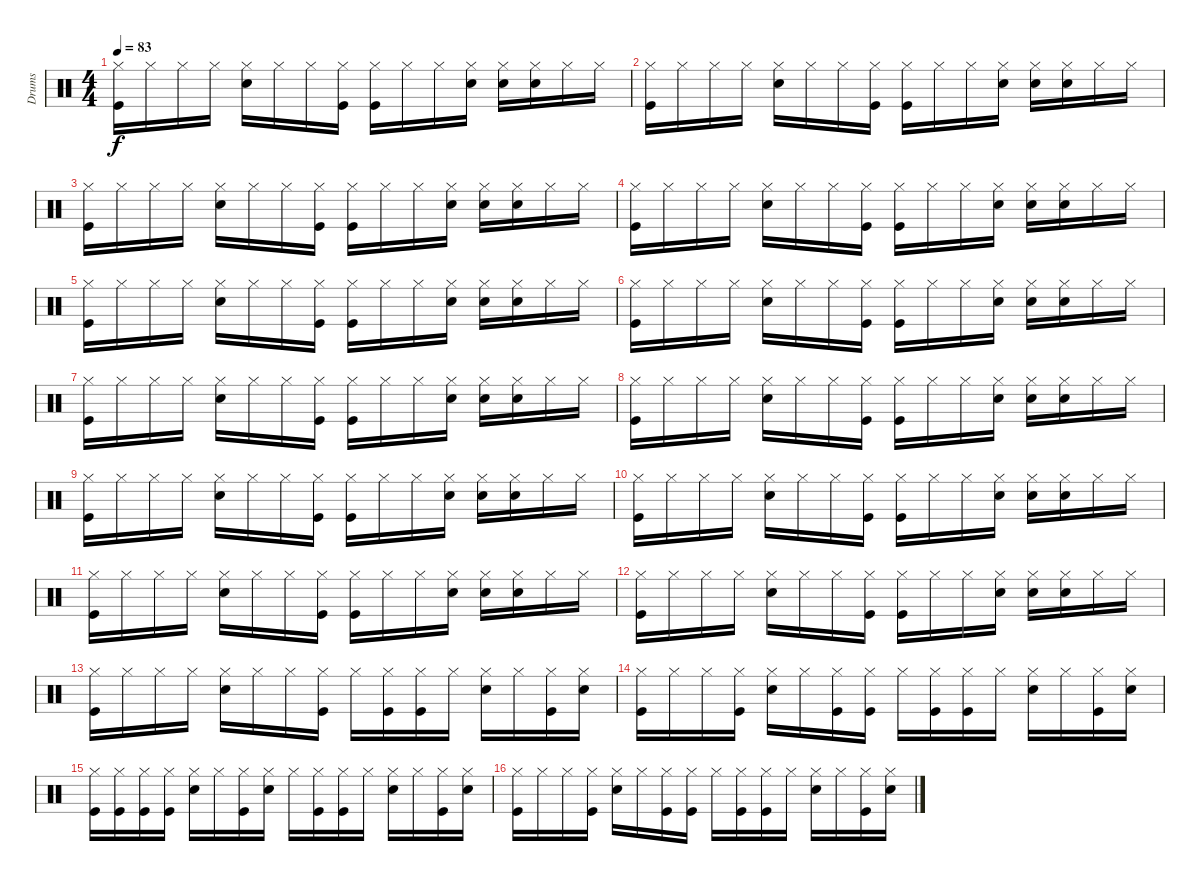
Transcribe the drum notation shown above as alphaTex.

\track ("Drums" "Drums") {instrument percussion}
\staff {score}
\articulation defaults
\ts (4 4)
\tempo 83
\clef neutral
\ks c
("Hi-Hat (closed)" "Kick (hit)").16{dy f} "Hi-Hat (closed)".16 "Hi-Hat (closed)".16 "Hi-Hat (closed)".16 ("Hi-Hat (closed)" "Snare (hit) 2").16 "Hi-Hat (closed)".16 "Hi-Hat (closed)".16 ("Hi-Hat (closed)" "Kick (hit)").16 ("Hi-Hat (closed)" "Kick (hit)").16 "Hi-Hat (closed)".16 "Hi-Hat (closed)".16 ("Hand Clap (hit)" "Hi-Hat (closed)").16 ("Hi-Hat (closed)" "Snare (hit) 2").16 ("Hand Clap (hit)" "Hi-Hat (closed)").16 "Hi-Hat (closed)".16 "Hi-Hat (closed)".16 |
("Hi-Hat (closed)" "Kick (hit)").16 "Hi-Hat (closed)".16 "Hi-Hat (closed)".16 "Hi-Hat (closed)".16 ("Hi-Hat (closed)" "Snare (hit) 2").16 "Hi-Hat (closed)".16 "Hi-Hat (closed)".16 ("Hi-Hat (closed)" "Kick (hit)").16 ("Hi-Hat (closed)" "Kick (hit)").16 "Hi-Hat (closed)".16 "Hi-Hat (closed)".16 ("Hand Clap (hit)" "Hi-Hat (closed)").16 ("Hi-Hat (closed)" "Snare (hit) 2").16 ("Hand Clap (hit)" "Hi-Hat (closed)").16 "Hi-Hat (closed)".16 "Hi-Hat (closed)".16 |
("Hi-Hat (closed)" "Kick (hit)").16 "Hi-Hat (closed)".16 "Hi-Hat (closed)".16 "Hi-Hat (closed)".16 ("Hi-Hat (closed)" "Snare (hit) 2").16 "Hi-Hat (closed)".16 "Hi-Hat (closed)".16 ("Hi-Hat (closed)" "Kick (hit)").16 ("Hi-Hat (closed)" "Kick (hit)").16 "Hi-Hat (closed)".16 "Hi-Hat (closed)".16 ("Hand Clap (hit)" "Hi-Hat (closed)").16 ("Hi-Hat (closed)" "Snare (hit) 2").16 ("Hand Clap (hit)" "Hi-Hat (closed)").16 "Hi-Hat (closed)".16 "Hi-Hat (closed)".16 |
("Hi-Hat (closed)" "Kick (hit)").16 "Hi-Hat (closed)".16 "Hi-Hat (closed)".16 "Hi-Hat (closed)".16 ("Hi-Hat (closed)" "Snare (hit) 2").16 "Hi-Hat (closed)".16 "Hi-Hat (closed)".16 ("Hi-Hat (closed)" "Kick (hit)").16 ("Hi-Hat (closed)" "Kick (hit)").16 "Hi-Hat (closed)".16 "Hi-Hat (closed)".16 ("Hand Clap (hit)" "Hi-Hat (closed)").16 ("Hi-Hat (closed)" "Snare (hit) 2").16 ("Hand Clap (hit)" "Hi-Hat (closed)").16 "Hi-Hat (closed)".16 "Hi-Hat (closed)".16 |
("Hi-Hat (closed)" "Kick (hit)").16 "Hi-Hat (closed)".16 "Hi-Hat (closed)".16 "Hi-Hat (closed)".16 ("Hi-Hat (closed)" "Snare (hit) 2").16 "Hi-Hat (closed)".16 "Hi-Hat (closed)".16 ("Hi-Hat (closed)" "Kick (hit)").16 ("Hi-Hat (closed)" "Kick (hit)").16 "Hi-Hat (closed)".16 "Hi-Hat (closed)".16 ("Hand Clap (hit)" "Hi-Hat (closed)").16 ("Hi-Hat (closed)" "Snare (hit) 2").16 ("Hand Clap (hit)" "Hi-Hat (closed)").16 "Hi-Hat (closed)".16 "Hi-Hat (closed)".16 |
("Hi-Hat (closed)" "Kick (hit)").16 "Hi-Hat (closed)".16 "Hi-Hat (closed)".16 "Hi-Hat (closed)".16 ("Hi-Hat (closed)" "Snare (hit) 2").16 "Hi-Hat (closed)".16 "Hi-Hat (closed)".16 ("Hi-Hat (closed)" "Kick (hit)").16 ("Hi-Hat (closed)" "Kick (hit)").16 "Hi-Hat (closed)".16 "Hi-Hat (closed)".16 ("Hand Clap (hit)" "Hi-Hat (closed)").16 ("Hi-Hat (closed)" "Snare (hit) 2").16 ("Hand Clap (hit)" "Hi-Hat (closed)").16 "Hi-Hat (closed)".16 "Hi-Hat (closed)".16 |
("Hi-Hat (closed)" "Kick (hit)").16 "Hi-Hat (closed)".16 "Hi-Hat (closed)".16 "Hi-Hat (closed)".16 ("Hi-Hat (closed)" "Snare (hit) 2").16 "Hi-Hat (closed)".16 "Hi-Hat (closed)".16 ("Hi-Hat (closed)" "Kick (hit)").16 ("Hi-Hat (closed)" "Kick (hit)").16 "Hi-Hat (closed)".16 "Hi-Hat (closed)".16 ("Hand Clap (hit)" "Hi-Hat (closed)").16 ("Hi-Hat (closed)" "Snare (hit) 2").16 ("Hand Clap (hit)" "Hi-Hat (closed)").16 "Hi-Hat (closed)".16 "Hi-Hat (closed)".16 |
("Hi-Hat (closed)" "Kick (hit)").16 "Hi-Hat (closed)".16 "Hi-Hat (closed)".16 "Hi-Hat (closed)".16 ("Hi-Hat (closed)" "Snare (hit) 2").16 "Hi-Hat (closed)".16 "Hi-Hat (closed)".16 ("Hi-Hat (closed)" "Kick (hit)").16 ("Hi-Hat (closed)" "Kick (hit)").16 "Hi-Hat (closed)".16 "Hi-Hat (closed)".16 ("Hand Clap (hit)" "Hi-Hat (closed)").16 ("Hi-Hat (closed)" "Snare (hit) 2").16 ("Hand Clap (hit)" "Hi-Hat (closed)").16 "Hi-Hat (closed)".16 "Hi-Hat (closed)".16 |
("Hi-Hat (closed)" "Kick (hit)").16 "Hi-Hat (closed)".16 "Hi-Hat (closed)".16 "Hi-Hat (closed)".16 ("Hi-Hat (closed)" "Snare (hit) 2").16 "Hi-Hat (closed)".16 "Hi-Hat (closed)".16 ("Hi-Hat (closed)" "Kick (hit)").16 ("Hi-Hat (closed)" "Kick (hit)").16 "Hi-Hat (closed)".16 "Hi-Hat (closed)".16 ("Hand Clap (hit)" "Hi-Hat (closed)").16 ("Hi-Hat (closed)" "Snare (hit) 2").16 ("Hand Clap (hit)" "Hi-Hat (closed)").16 "Hi-Hat (closed)".16 "Hi-Hat (closed)".16 |
("Hi-Hat (closed)" "Kick (hit)").16 "Hi-Hat (closed)".16 "Hi-Hat (closed)".16 "Hi-Hat (closed)".16 ("Hi-Hat (closed)" "Snare (hit) 2").16 "Hi-Hat (closed)".16 "Hi-Hat (closed)".16 ("Hi-Hat (closed)" "Kick (hit)").16 ("Hi-Hat (closed)" "Kick (hit)").16 "Hi-Hat (closed)".16 "Hi-Hat (closed)".16 ("Hand Clap (hit)" "Hi-Hat (closed)").16 ("Hi-Hat (closed)" "Snare (hit) 2").16 ("Hand Clap (hit)" "Hi-Hat (closed)").16 "Hi-Hat (closed)".16 "Hi-Hat (closed)".16 |
("Hi-Hat (closed)" "Kick (hit)").16 "Hi-Hat (closed)".16 "Hi-Hat (closed)".16 "Hi-Hat (closed)".16 ("Hi-Hat (closed)" "Snare (hit) 2").16 "Hi-Hat (closed)".16 "Hi-Hat (closed)".16 ("Hi-Hat (closed)" "Kick (hit)").16 ("Hi-Hat (closed)" "Kick (hit)").16 "Hi-Hat (closed)".16 "Hi-Hat (closed)".16 ("Hand Clap (hit)" "Hi-Hat (closed)").16 ("Hi-Hat (closed)" "Snare (hit) 2").16 ("Hand Clap (hit)" "Hi-Hat (closed)").16 "Hi-Hat (closed)".16 "Hi-Hat (closed)".16 |
("Hi-Hat (closed)" "Kick (hit)").16 "Hi-Hat (closed)".16 "Hi-Hat (closed)".16 "Hi-Hat (closed)".16 ("Hi-Hat (closed)" "Snare (hit) 2").16 "Hi-Hat (closed)".16 "Hi-Hat (closed)".16 ("Hi-Hat (closed)" "Kick (hit)").16 ("Hi-Hat (closed)" "Kick (hit)").16 "Hi-Hat (closed)".16 "Hi-Hat (closed)".16 ("Hand Clap (hit)" "Hi-Hat (closed)").16 ("Hi-Hat (closed)" "Snare (hit) 2").16 ("Hand Clap (hit)" "Hi-Hat (closed)").16 "Hi-Hat (closed)".16 "Hi-Hat (closed)".16 |
("Hi-Hat (closed)" "Kick (hit)").16 "Hi-Hat (closed)".16 "Hi-Hat (closed)".16 "Hi-Hat (closed)".16 ("Hi-Hat (closed)" "Snare (hit) 2").16 "Hi-Hat (closed)".16 "Hi-Hat (closed)".16 ("Hi-Hat (closed)" "Kick (hit)").16 "Hi-Hat (closed)".16 ("Hi-Hat (closed)" "Kick (hit)").16 ("Hi-Hat (closed)" "Kick (hit)").16 "Hi-Hat (closed)".16 ("Hi-Hat (closed)" "Snare (hit) 2").16 "Hi-Hat (closed)".16 ("Hi-Hat (closed)" "Kick (hit)").16 ("Hi-Hat (closed)" "Snare (hit) 2").16 |
("Hi-Hat (closed)" "Kick (hit)").16 "Hi-Hat (closed)".16 "Hi-Hat (closed)".16 ("Hi-Hat (closed)" "Kick (hit)").16 ("Hi-Hat (closed)" "Snare (hit) 2").16 "Hi-Hat (closed)".16 ("Hi-Hat (closed)" "Kick (hit)").16 ("Hi-Hat (closed)" "Kick (hit)").16 "Hi-Hat (closed)".16 ("Hi-Hat (closed)" "Kick (hit)").16 ("Hi-Hat (closed)" "Kick (hit)").16 "Hi-Hat (closed)".16 ("Hi-Hat (closed)" "Snare (hit) 2").16 "Hi-Hat (closed)".16 ("Hi-Hat (closed)" "Kick (hit)").16 ("Hi-Hat (closed)" "Snare (hit) 2").16 |
("Hi-Hat (closed)" "Kick (hit)").16 ("Hi-Hat (closed)" "Kick (hit)").16 ("Hi-Hat (closed)" "Kick (hit)").16 ("Hi-Hat (closed)" "Kick (hit)").16 ("Hi-Hat (closed)" "Snare (hit) 2").16 "Hi-Hat (closed)".16 ("Hi-Hat (closed)" "Kick (hit)").16 ("Hi-Hat (closed)" "Snare (hit) 2").16 "Hi-Hat (closed)".16 ("Hi-Hat (closed)" "Kick (hit)").16 ("Hi-Hat (closed)" "Kick (hit)").16 "Hi-Hat (closed)".16 ("Hi-Hat (closed)" "Snare (hit) 2").16 "Hi-Hat (closed)".16 ("Hi-Hat (closed)" "Kick (hit)").16 ("Hi-Hat (closed)" "Snare (hit) 2").16 |
("Hi-Hat (closed)" "Kick (hit)").16 "Hi-Hat (closed)".16 "Hi-Hat (closed)".16 ("Hi-Hat (closed)" "Kick (hit)").16 ("Hi-Hat (closed)" "Snare (hit) 2").16 "Hi-Hat (closed)".16 ("Hi-Hat (closed)" "Kick (hit)").16 ("Hi-Hat (closed)" "Kick (hit)").16 "Hi-Hat (closed)".16 ("Hi-Hat (closed)" "Kick (hit)").16 ("Hi-Hat (closed)" "Kick (hit)").16 "Hi-Hat (closed)".16 ("Hi-Hat (closed)" "Snare (hit) 2").16 "Hi-Hat (closed)".16 ("Hi-Hat (closed)" "Kick (hit)").16 ("Hi-Hat (closed)" "Snare (hit) 2").16
